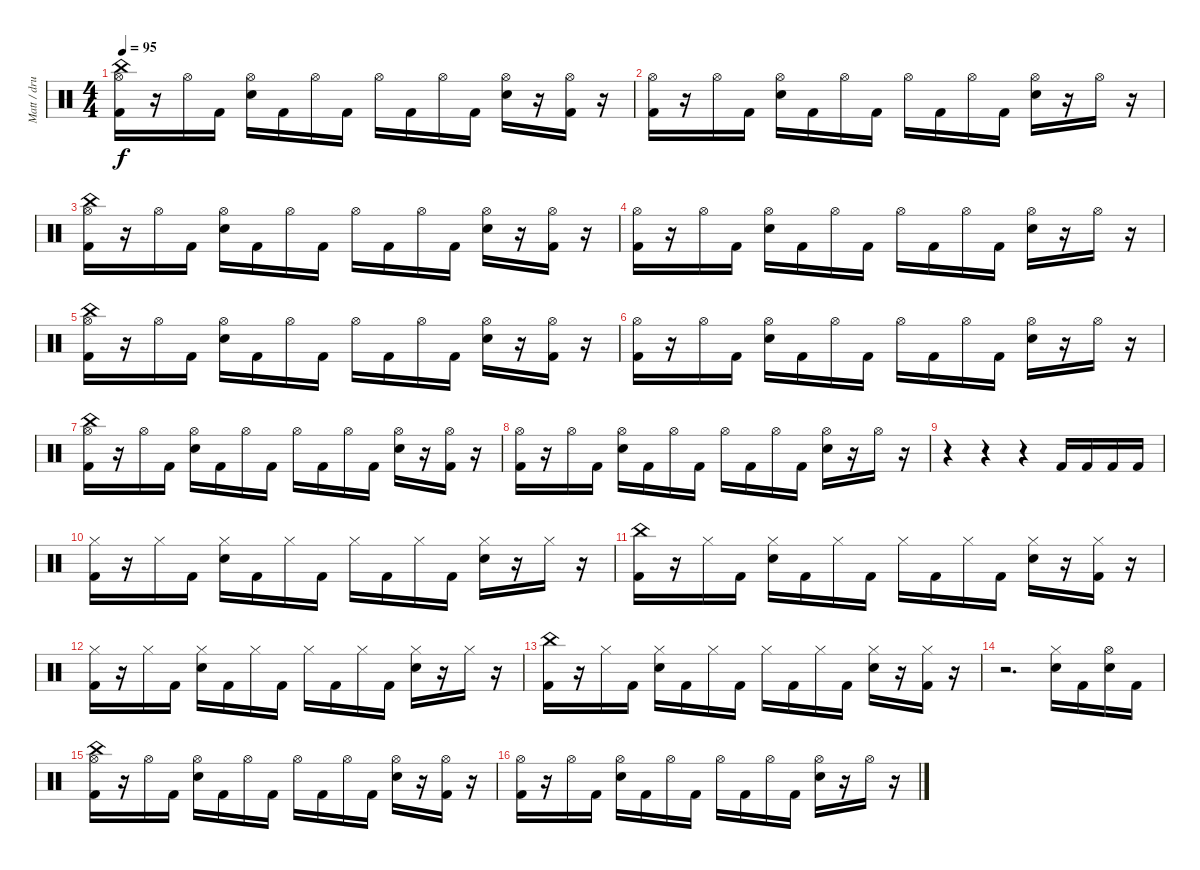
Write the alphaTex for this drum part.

\track ("Matt / drums" "Matt / dru") {instrument percussion}
\staff {score}
\articulation defaults
\ts (4 4)
\tempo 95
\clef neutral
\ks c
("China (hit)" "Hi-Hat (open)" "Kick (hit) 2").16{dy f volume 13} r.16 "Hi-Hat (open)".16 "Kick (hit) 2".16 ("Hi-Hat (open)" "Snare (hit) 2").16 "Kick (hit) 2".16 "Hi-Hat (open)".16 "Kick (hit) 2".16 "Hi-Hat (open)".16 "Kick (hit) 2".16 "Hi-Hat (open)".16 "Kick (hit) 2".16 ("Hi-Hat (open)" "Snare (hit) 2").16 r.16 ("Hi-Hat (open)" "Kick (hit) 2").16 r.16 |
("Hi-Hat (open)" "Kick (hit) 2").16 r.16 "Hi-Hat (open)".16 "Kick (hit) 2".16 ("Hi-Hat (open)" "Snare (hit) 2").16 "Kick (hit) 2".16 "Hi-Hat (open)".16 "Kick (hit) 2".16 "Hi-Hat (open)".16 "Kick (hit) 2".16 "Hi-Hat (open)".16 "Kick (hit) 2".16 ("Hi-Hat (open)" "Snare (hit) 2").16 r.16 "Hi-Hat (open)".16 r.16 |
("China (hit)" "Hi-Hat (open)" "Kick (hit) 2").16 r.16 "Hi-Hat (open)".16 "Kick (hit) 2".16 ("Hi-Hat (open)" "Snare (hit) 2").16 "Kick (hit) 2".16 "Hi-Hat (open)".16 "Kick (hit) 2".16 "Hi-Hat (open)".16 "Kick (hit) 2".16 "Hi-Hat (open)".16 "Kick (hit) 2".16 ("Hi-Hat (open)" "Snare (hit) 2").16 r.16 ("Hi-Hat (open)" "Kick (hit) 2").16 r.16 |
("Hi-Hat (open)" "Kick (hit) 2").16 r.16 "Hi-Hat (open)".16 "Kick (hit) 2".16 ("Hi-Hat (open)" "Snare (hit) 2").16 "Kick (hit) 2".16 "Hi-Hat (open)".16 "Kick (hit) 2".16 "Hi-Hat (open)".16 "Kick (hit) 2".16 "Hi-Hat (open)".16 "Kick (hit) 2".16 ("Hi-Hat (open)" "Snare (hit) 2").16 r.16 "Hi-Hat (open)".16 r.16 |
("China (hit)" "Hi-Hat (open)" "Kick (hit) 2").16{volume 13} r.16 "Hi-Hat (open)".16 "Kick (hit) 2".16 ("Hi-Hat (open)" "Snare (hit) 2").16 "Kick (hit) 2".16 "Hi-Hat (open)".16 "Kick (hit) 2".16 "Hi-Hat (open)".16 "Kick (hit) 2".16 "Hi-Hat (open)".16 "Kick (hit) 2".16 ("Hi-Hat (open)" "Snare (hit) 2").16 r.16 ("Hi-Hat (open)" "Kick (hit) 2").16 r.16 |
("Hi-Hat (open)" "Kick (hit) 2").16 r.16 "Hi-Hat (open)".16 "Kick (hit) 2".16 ("Hi-Hat (open)" "Snare (hit) 2").16 "Kick (hit) 2".16 "Hi-Hat (open)".16 "Kick (hit) 2".16 "Hi-Hat (open)".16 "Kick (hit) 2".16 "Hi-Hat (open)".16 "Kick (hit) 2".16 ("Hi-Hat (open)" "Snare (hit) 2").16 r.16 "Hi-Hat (open)".16 r.16 |
("China (hit)" "Hi-Hat (open)" "Kick (hit) 2").16 r.16 "Hi-Hat (open)".16 "Kick (hit) 2".16 ("Hi-Hat (open)" "Snare (hit) 2").16 "Kick (hit) 2".16 "Hi-Hat (open)".16 "Kick (hit) 2".16 "Hi-Hat (open)".16 "Kick (hit) 2".16 "Hi-Hat (open)".16 "Kick (hit) 2".16 ("Hi-Hat (open)" "Snare (hit) 2").16 r.16 ("Hi-Hat (open)" "Kick (hit) 2").16 r.16 |
("Hi-Hat (open)" "Kick (hit) 2").16 r.16 "Hi-Hat (open)".16 "Kick (hit) 2".16 ("Hi-Hat (open)" "Snare (hit) 2").16 "Kick (hit) 2".16 "Hi-Hat (open)".16 "Kick (hit) 2".16 "Hi-Hat (open)".16 "Kick (hit) 2".16 "Hi-Hat (open)".16 "Kick (hit) 2".16 ("Hi-Hat (open)" "Snare (hit) 2").16 r.16 "Hi-Hat (open)".16 r.16 |
r.4{volume 11} r.4 r.4 "Kick (hit) 2".16 "Kick (hit) 2".16 "Kick (hit) 2".16 "Kick (hit) 2".16 |
("Hi-Hat (closed)" "Kick (hit) 2").16 r.16 "Hi-Hat (closed)".16 "Kick (hit) 2".16 ("Hi-Hat (closed)" "Snare (hit) 2").16 "Kick (hit) 2".16 "Hi-Hat (closed)".16 "Kick (hit) 2".16 "Hi-Hat (closed)".16 "Kick (hit) 2".16 "Hi-Hat (closed)".16 "Kick (hit) 2".16 ("Hi-Hat (closed)" "Snare (hit) 2").16 r.16 "Hi-Hat (closed)".16 r.16 |
("China (hit)" "Kick (hit) 2").16 r.16 "Hi-Hat (closed)".16 "Kick (hit) 2".16 ("Hi-Hat (closed)" "Snare (hit) 2").16 "Kick (hit) 2".16 "Hi-Hat (closed)".16 "Kick (hit) 2".16 "Hi-Hat (closed)".16 "Kick (hit) 2".16 "Hi-Hat (closed)".16 "Kick (hit) 2".16 ("Hi-Hat (closed)" "Snare (hit) 2").16 r.16 ("Hi-Hat (closed)" "Kick (hit) 2").16 r.16 |
("Hi-Hat (closed)" "Kick (hit) 2").16 r.16 "Hi-Hat (closed)".16 "Kick (hit) 2".16 ("Hi-Hat (closed)" "Snare (hit) 2").16 "Kick (hit) 2".16 "Hi-Hat (closed)".16 "Kick (hit) 2".16 "Hi-Hat (closed)".16 "Kick (hit) 2".16 "Hi-Hat (closed)".16 "Kick (hit) 2".16 ("Hi-Hat (closed)" "Snare (hit) 2").16 r.16 "Hi-Hat (closed)".16 r.16 |
("China (hit)" "Kick (hit) 2").16 r.16 "Hi-Hat (closed)".16 "Kick (hit) 2".16 ("Hi-Hat (closed)" "Snare (hit) 2").16 "Kick (hit) 2".16 "Hi-Hat (closed)".16 "Kick (hit) 2".16 "Hi-Hat (closed)".16 "Kick (hit) 2".16 "Hi-Hat (closed)".16 "Kick (hit) 2".16 ("Hi-Hat (closed)" "Snare (hit) 2").16 r.16 ("Hi-Hat (closed)" "Kick (hit) 2").16 r.16 |
r.2{d} ("Hi-Hat (closed)" "Snare (hit) 2").16 "Kick (hit) 2".16 ("Hi-Hat (open)" "Snare (hit) 2").16 "Kick (hit) 2".16 |
("China (hit)" "Hi-Hat (open)" "Kick (hit) 2").16{volume 13} r.16 "Hi-Hat (open)".16 "Kick (hit) 2".16 ("Hi-Hat (open)" "Snare (hit) 2").16 "Kick (hit) 2".16 "Hi-Hat (open)".16 "Kick (hit) 2".16 "Hi-Hat (open)".16 "Kick (hit) 2".16 "Hi-Hat (open)".16 "Kick (hit) 2".16 ("Hi-Hat (open)" "Snare (hit) 2").16 r.16 ("Hi-Hat (open)" "Kick (hit) 2").16 r.16 |
("Hi-Hat (open)" "Kick (hit) 2").16 r.16 "Hi-Hat (open)".16 "Kick (hit) 2".16 ("Hi-Hat (open)" "Snare (hit) 2").16 "Kick (hit) 2".16 "Hi-Hat (open)".16 "Kick (hit) 2".16 "Hi-Hat (open)".16 "Kick (hit) 2".16 "Hi-Hat (open)".16 "Kick (hit) 2".16 ("Hi-Hat (open)" "Snare (hit) 2").16 r.16 "Hi-Hat (open)".16 r.16
